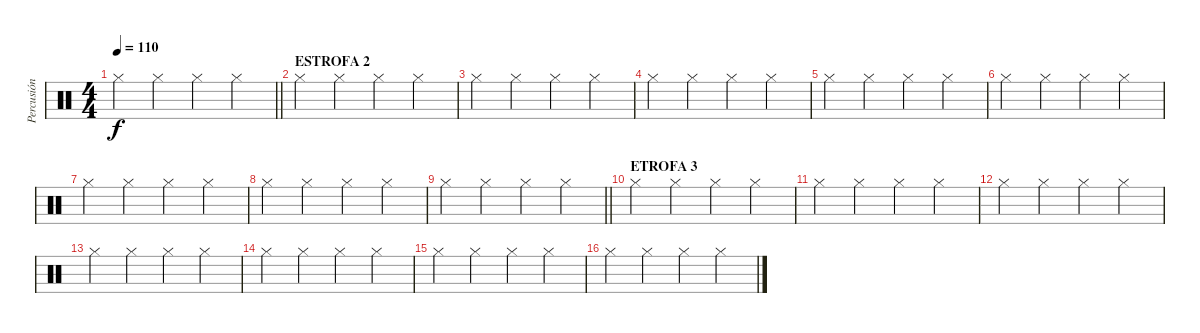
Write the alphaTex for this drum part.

\track ("Percusión" "Percusión") {instrument percussion}
\staff {score}
\articulation defaults
\ts (4 4)
\tempo 110
\clef neutral
\barLineRight lightlight
\ks c "Hi-Hat (closed)".4{dy f} "Hi-Hat (closed)".4 "Hi-Hat (closed)".4 "Hi-Hat (closed)".4
|
\section ("" "ESTROFA 2")
"Hi-Hat (closed)".4 "Hi-Hat (closed)".4 "Hi-Hat (closed)".4 "Hi-Hat (closed)".4 |
"Hi-Hat (closed)".4 "Hi-Hat (closed)".4 "Hi-Hat (closed)".4 "Hi-Hat (closed)".4 |
"Hi-Hat (closed)".4 "Hi-Hat (closed)".4 "Hi-Hat (closed)".4 "Hi-Hat (closed)".4 |
"Hi-Hat (closed)".4 "Hi-Hat (closed)".4 "Hi-Hat (closed)".4 "Hi-Hat (closed)".4 |
"Hi-Hat (closed)".4 "Hi-Hat (closed)".4 "Hi-Hat (closed)".4 "Hi-Hat (closed)".4 |
"Hi-Hat (closed)".4 "Hi-Hat (closed)".4 "Hi-Hat (closed)".4 "Hi-Hat (closed)".4 |
"Hi-Hat (closed)".4 "Hi-Hat (closed)".4 "Hi-Hat (closed)".4 "Hi-Hat (closed)".4 |
\barLineRight lightlight "Hi-Hat (closed)".4 "Hi-Hat (closed)".4 "Hi-Hat (closed)".4 "Hi-Hat (closed)".4
|
\section ("" "ETROFA 3")
"Hi-Hat (closed)".4 "Hi-Hat (closed)".4 "Hi-Hat (closed)".4 "Hi-Hat (closed)".4 |
"Hi-Hat (closed)".4 "Hi-Hat (closed)".4 "Hi-Hat (closed)".4 "Hi-Hat (closed)".4 |
"Hi-Hat (closed)".4 "Hi-Hat (closed)".4 "Hi-Hat (closed)".4 "Hi-Hat (closed)".4 |
"Hi-Hat (closed)".4 "Hi-Hat (closed)".4 "Hi-Hat (closed)".4 "Hi-Hat (closed)".4 |
"Hi-Hat (closed)".4 "Hi-Hat (closed)".4 "Hi-Hat (closed)".4 "Hi-Hat (closed)".4 |
"Hi-Hat (closed)".4 "Hi-Hat (closed)".4 "Hi-Hat (closed)".4 "Hi-Hat (closed)".4 |
"Hi-Hat (closed)".4 "Hi-Hat (closed)".4 "Hi-Hat (closed)".4 "Hi-Hat (closed)".4
